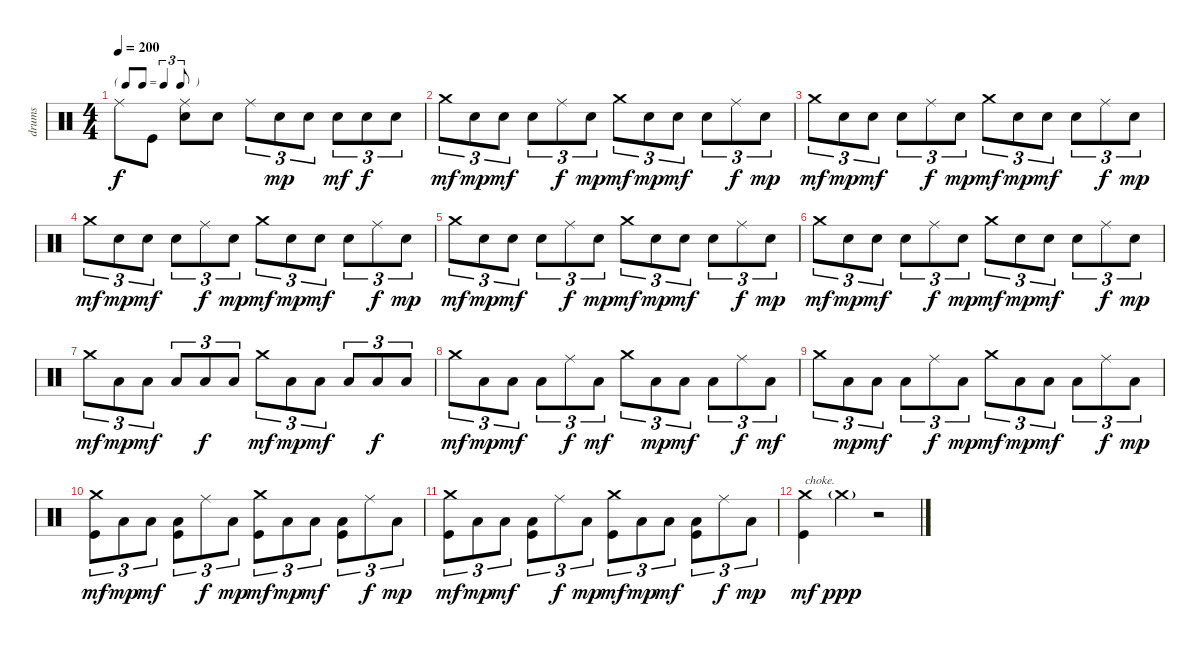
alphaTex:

\track ("drums" "drums") {instrument percussion}
\staff {score}
\articulation defaults
\ts (4 4)
\tf triplet8th
\tempo 200
\clef neutral
\ks c "Ride (middle)".8{dy f} "Kick (hit)".8
("Ride (middle)" "Snare (hit) 2").8 "Snare (hit) 2".8 "Ride (middle)".8{tu (3 2)} "Snare (hit) 2".8{tu (3 2) dy mp} "Snare (hit) 2".8{tu (3 2)} "Snare (hit) 2".8{tu (3 2) dy mf} "Snare (hit) 2".8{tu (3 2) dy f} "Snare (hit) 2".8{tu (3 2)} |
"Crash medium (hit)".8{tu (3 2) dy mf} "Snare (hit) 2".8{tu (3 2) dy mp} "Snare (hit) 2".8{tu (3 2) dy mf} "Snare (hit) 2".8{tu (3 2)} "Ride (middle)".8{tu (3 2) dy f} "Snare (hit) 2".8{tu (3 2) dy mp} "Crash medium (hit)".8{tu (3 2) dy mf} "Snare (hit) 2".8{tu (3 2) dy mp} "Snare (hit) 2".8{tu (3 2) dy mf} "Snare (hit) 2".8{tu (3 2)} "Ride (middle)".8{tu (3 2) dy f} "Snare (hit) 2".8{tu (3 2) dy mp} |
"Crash medium (hit)".8{tu (3 2) dy mf} "Snare (hit) 2".8{tu (3 2) dy mp} "Snare (hit) 2".8{tu (3 2) dy mf} "Snare (hit) 2".8{tu (3 2)} "Ride (middle)".8{tu (3 2) dy f} "Snare (hit) 2".8{tu (3 2) dy mp} "Crash medium (hit)".8{tu (3 2) dy mf} "Snare (hit) 2".8{tu (3 2) dy mp} "Snare (hit) 2".8{tu (3 2) dy mf} "Snare (hit) 2".8{tu (3 2)} "Ride (middle)".8{tu (3 2) dy f} "Snare (hit) 2".8{tu (3 2) dy mp} |
"Crash medium (hit)".8{tu (3 2) dy mf} "Snare (hit) 2".8{tu (3 2) dy mp} "Snare (hit) 2".8{tu (3 2) dy mf} "Snare (hit) 2".8{tu (3 2)} "Ride (middle)".8{tu (3 2) dy f} "Snare (hit) 2".8{tu (3 2) dy mp} "Crash medium (hit)".8{tu (3 2) dy mf} "Snare (hit) 2".8{tu (3 2) dy mp} "Snare (hit) 2".8{tu (3 2) dy mf} "Snare (hit) 2".8{tu (3 2)} "Ride (middle)".8{tu (3 2) dy f} "Snare (hit) 2".8{tu (3 2) dy mp} |
"Crash medium (hit)".8{tu (3 2) dy mf} "Snare (hit) 2".8{tu (3 2) dy mp} "Snare (hit) 2".8{tu (3 2) dy mf} "Snare (hit) 2".8{tu (3 2)} "Ride (middle)".8{tu (3 2) dy f} "Snare (hit) 2".8{tu (3 2) dy mp} "Crash medium (hit)".8{tu (3 2) dy mf} "Snare (hit) 2".8{tu (3 2) dy mp} "Snare (hit) 2".8{tu (3 2) dy mf} "Snare (hit) 2".8{tu (3 2)} "Ride (middle)".8{tu (3 2) dy f} "Snare (hit) 2".8{tu (3 2) dy mp} |
"Crash medium (hit)".8{tu (3 2) dy mf} "Snare (hit) 2".8{tu (3 2) dy mp} "Snare (hit) 2".8{tu (3 2) dy mf} "Snare (hit) 2".8{tu (3 2)} "Ride (middle)".8{tu (3 2) dy f} "Snare (hit) 2".8{tu (3 2) dy mp} "Crash medium (hit)".8{tu (3 2) dy mf} "Snare (hit) 2".8{tu (3 2) dy mp} "Snare (hit) 2".8{tu (3 2) dy mf} "Snare (hit) 2".8{tu (3 2)} "Ride (middle)".8{tu (3 2) dy f} "Snare (hit) 2".8{tu (3 2) dy mp} |
"Crash medium (hit)".8{tu (3 2) dy mf} "Low Tom (hit)".8{tu (3 2) dy mp} "Low Tom (hit)".8{tu (3 2) dy mf} "Low Tom (hit)".8{tu (3 2)} "Low Tom (hit)".8{tu (3 2) dy f} "Low Tom (hit)".8{tu (3 2)} "Crash medium (hit)".8{tu (3 2) dy mf} "Low Tom (hit)".8{tu (3 2) dy mp} "Low Tom (hit)".8{tu (3 2) dy mf} "Low Tom (hit)".8{tu (3 2)} "Low Tom (hit)".8{tu (3 2) dy f} "Low Tom (hit)".8{tu (3 2)} |
"Crash medium (hit)".8{tu (3 2) dy mf} "Low Tom (hit)".8{tu (3 2) dy mp} "Low Tom (hit)".8{tu (3 2) dy mf} "Low Tom (hit)".8{tu (3 2)} "Ride (middle)".8{tu (3 2) dy f} "Low Tom (hit)".8{tu (3 2) dy mf} "Crash medium (hit)".8{tu (3 2)} "Low Tom (hit)".8{tu (3 2) dy mp} "Low Tom (hit)".8{tu (3 2) dy mf} "Low Tom (hit)".8{tu (3 2)} "Ride (middle)".8{tu (3 2) dy f} "Low Tom (hit)".8{tu (3 2) dy mf} |
"Crash medium (hit)".8{tu (3 2)} "Low Floor Tom (hit)".8{tu (3 2) dy mp} "Low Floor Tom (hit)".8{tu (3 2) dy mf} "Low Floor Tom (hit)".8{tu (3 2)} "Ride (middle)".8{tu (3 2) dy f} "Low Floor Tom (hit)".8{tu (3 2) dy mp} "Crash medium (hit)".8{tu (3 2) dy mf} "Low Floor Tom (hit)".8{tu (3 2) dy mp} "Low Floor Tom (hit)".8{tu (3 2) dy mf} "Low Floor Tom (hit)".8{tu (3 2)} "Ride (middle)".8{tu (3 2) dy f} "Low Floor Tom (hit)".8{tu (3 2) dy mp} |
("Crash medium (hit)" "Kick (hit)").8{tu (3 2) dy mf} "Low Floor Tom (hit)".8{tu (3 2) dy mp} "Low Floor Tom (hit)".8{tu (3 2) dy mf} ("Low Floor Tom (hit)" "Kick (hit)").8{tu (3 2)} "Ride (middle)".8{tu (3 2) dy f} "Low Floor Tom (hit)".8{tu (3 2) dy mp} ("Crash medium (hit)" "Kick (hit)").8{tu (3 2) dy mf} "Low Floor Tom (hit)".8{tu (3 2) dy mp} "Low Floor Tom (hit)".8{tu (3 2) dy mf} ("Low Floor Tom (hit)" "Kick (hit)").8{tu (3 2)} "Ride (middle)".8{tu (3 2) dy f} "Low Floor Tom (hit)".8{tu (3 2) dy mp} |
("Crash medium (hit)" "Kick (hit)").8{tu (3 2) dy mf} "Low Floor Tom (hit)".8{tu (3 2) dy mp} "Low Floor Tom (hit)".8{tu (3 2) dy mf} ("Low Floor Tom (hit)" "Kick (hit)").8{tu (3 2)} "Ride (middle)".8{tu (3 2) dy f} "Low Floor Tom (hit)".8{tu (3 2) dy mp} ("Crash medium (hit)" "Kick (hit)").8{tu (3 2) dy mf} "Low Floor Tom (hit)".8{tu (3 2) dy mp} "Low Floor Tom (hit)".8{tu (3 2) dy mf} ("Low Floor Tom (hit)" "Kick (hit)").8{tu (3 2)} "Ride (middle)".8{tu (3 2) dy f} "Low Floor Tom (hit)".8{tu (3 2) dy mp} |
("Crash medium (hit)" "Kick (hit)").4{txt "choke." dy mf} "Crash medium (hit)"{g}.4{dy ppp} r.2
